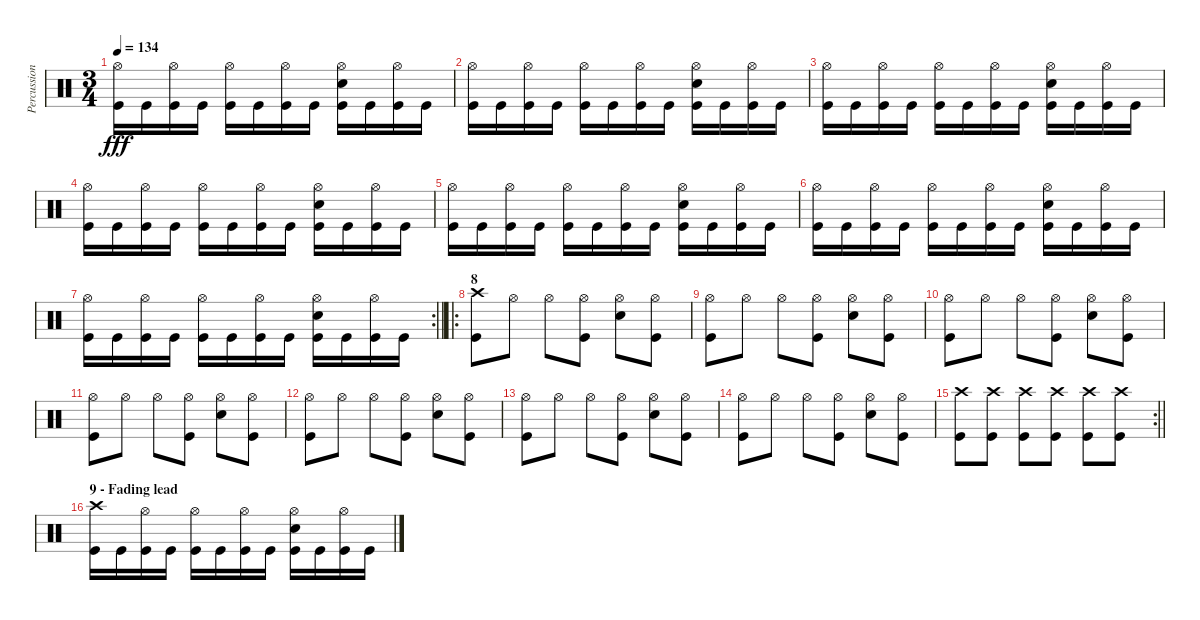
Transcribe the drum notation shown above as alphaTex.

\track ("Percussion" "Percussion") {instrument percussion}
\staff {score}
\articulation defaults
\ts (3 4)
\tempo 134
\clef neutral
\ks c
("Hi-Hat (open)" "Kick (hit)").16{dy fff} "Kick (hit)".16 ("Hi-Hat (open)" "Kick (hit)").16 "Kick (hit)".16 ("Hi-Hat (open)" "Kick (hit)").16 "Kick (hit)".16 ("Hi-Hat (open)" "Kick (hit)").16 "Kick (hit)".16 ("Hi-Hat (open)" "Snare (hit) 2" "Kick (hit)").16 "Kick (hit)".16 ("Hi-Hat (open)" "Kick (hit)").16 "Kick (hit)".16 |
("Hi-Hat (open)" "Kick (hit)").16 "Kick (hit)".16 ("Hi-Hat (open)" "Kick (hit)").16 "Kick (hit)".16 ("Hi-Hat (open)" "Kick (hit)").16 "Kick (hit)".16 ("Hi-Hat (open)" "Kick (hit)").16 "Kick (hit)".16 ("Hi-Hat (open)" "Snare (hit) 2" "Kick (hit)").16 "Kick (hit)".16 ("Hi-Hat (open)" "Kick (hit)").16 "Kick (hit)".16 |
("Hi-Hat (open)" "Kick (hit)").16 "Kick (hit)".16 ("Hi-Hat (open)" "Kick (hit)").16 "Kick (hit)".16 ("Hi-Hat (open)" "Kick (hit)").16 "Kick (hit)".16 ("Hi-Hat (open)" "Kick (hit)").16 "Kick (hit)".16 ("Hi-Hat (open)" "Snare (hit) 2" "Kick (hit)").16 "Kick (hit)".16 ("Hi-Hat (open)" "Kick (hit)").16 "Kick (hit)".16 |
("Hi-Hat (open)" "Kick (hit)").16 "Kick (hit)".16 ("Hi-Hat (open)" "Kick (hit)").16 "Kick (hit)".16 ("Hi-Hat (open)" "Kick (hit)").16 "Kick (hit)".16 ("Hi-Hat (open)" "Kick (hit)").16 "Kick (hit)".16 ("Hi-Hat (open)" "Snare (hit) 2" "Kick (hit)").16 "Kick (hit)".16 ("Hi-Hat (open)" "Kick (hit)").16 "Kick (hit)".16 |
("Hi-Hat (open)" "Kick (hit)").16 "Kick (hit)".16 ("Hi-Hat (open)" "Kick (hit)").16 "Kick (hit)".16 ("Hi-Hat (open)" "Kick (hit)").16 "Kick (hit)".16 ("Hi-Hat (open)" "Kick (hit)").16 "Kick (hit)".16 ("Hi-Hat (open)" "Snare (hit) 2" "Kick (hit)").16 "Kick (hit)".16 ("Hi-Hat (open)" "Kick (hit)").16 "Kick (hit)".16 |
("Hi-Hat (open)" "Kick (hit)").16 "Kick (hit)".16 ("Hi-Hat (open)" "Kick (hit)").16 "Kick (hit)".16 ("Hi-Hat (open)" "Kick (hit)").16 "Kick (hit)".16 ("Hi-Hat (open)" "Kick (hit)").16 "Kick (hit)".16 ("Hi-Hat (open)" "Snare (hit) 2" "Kick (hit)").16 "Kick (hit)".16 ("Hi-Hat (open)" "Kick (hit)").16 "Kick (hit)".16 |
\rc 2
\barLineRight lightlight
("Hi-Hat (open)" "Kick (hit)").16 "Kick (hit)".16 ("Hi-Hat (open)" "Kick (hit)").16 "Kick (hit)".16 ("Hi-Hat (open)" "Kick (hit)").16 "Kick (hit)".16 ("Hi-Hat (open)" "Kick (hit)").16 "Kick (hit)".16 ("Hi-Hat (open)" "Snare (hit) 2" "Kick (hit)").16 "Kick (hit)".16 ("Hi-Hat (open)" "Kick (hit)").16 "Kick (hit)".16 |
\ro
\section ("" "8")
("Crash high (hit)" "Kick (hit)").8 "Hi-Hat (open)".8 "Hi-Hat (open)".8 ("Hi-Hat (open)" "Kick (hit)").8 ("Hi-Hat (open)" "Snare (hit) 2").8 ("Hi-Hat (open)" "Kick (hit)").8 |
("Hi-Hat (open)" "Kick (hit)").8 "Hi-Hat (open)".8 "Hi-Hat (open)".8 ("Hi-Hat (open)" "Kick (hit)").8 ("Hi-Hat (open)" "Snare (hit) 2").8 ("Hi-Hat (open)" "Kick (hit)").8 |
("Hi-Hat (open)" "Kick (hit)").8 "Hi-Hat (open)".8 "Hi-Hat (open)".8 ("Hi-Hat (open)" "Kick (hit)").8 ("Hi-Hat (open)" "Snare (hit) 2").8 ("Hi-Hat (open)" "Kick (hit)").8 |
("Hi-Hat (open)" "Kick (hit)").8 "Hi-Hat (open)".8 "Hi-Hat (open)".8 ("Hi-Hat (open)" "Kick (hit)").8 ("Hi-Hat (open)" "Snare (hit) 2").8 ("Hi-Hat (open)" "Kick (hit)").8 |
("Hi-Hat (open)" "Kick (hit)").8 "Hi-Hat (open)".8 "Hi-Hat (open)".8 ("Hi-Hat (open)" "Kick (hit)").8 ("Hi-Hat (open)" "Snare (hit) 2").8 ("Hi-Hat (open)" "Kick (hit)").8 |
("Hi-Hat (open)" "Kick (hit)").8 "Hi-Hat (open)".8 "Hi-Hat (open)".8 ("Hi-Hat (open)" "Kick (hit)").8 ("Hi-Hat (open)" "Snare (hit) 2").8 ("Hi-Hat (open)" "Kick (hit)").8 |
("Hi-Hat (open)" "Kick (hit)").8 "Hi-Hat (open)".8 "Hi-Hat (open)".8 ("Hi-Hat (open)" "Kick (hit)").8 ("Hi-Hat (open)" "Snare (hit) 2").8 ("Hi-Hat (open)" "Kick (hit)").8 |
\rc 2
\barLineRight lightlight
("Crash high (hit)" "Kick (hit)").8 ("Crash high (hit)" "Kick (hit)").8 ("Crash high (hit)" "Kick (hit)").8 ("Crash high (hit)" "Kick (hit)").8 ("Crash high (hit)" "Kick (hit)").8 ("Crash high (hit)" "Kick (hit)").8 |
\section ("" "9 - Fading lead")
("Crash high (hit)" "Kick (hit)").16 "Kick (hit)".16 ("Hi-Hat (open)" "Kick (hit)").16 "Kick (hit)".16 ("Hi-Hat (open)" "Kick (hit)").16 "Kick (hit)".16 ("Hi-Hat (open)" "Kick (hit)").16 "Kick (hit)".16 ("Hi-Hat (open)" "Snare (hit) 2" "Kick (hit)").16 "Kick (hit)".16 ("Hi-Hat (open)" "Kick (hit)").16 "Kick (hit)".16
